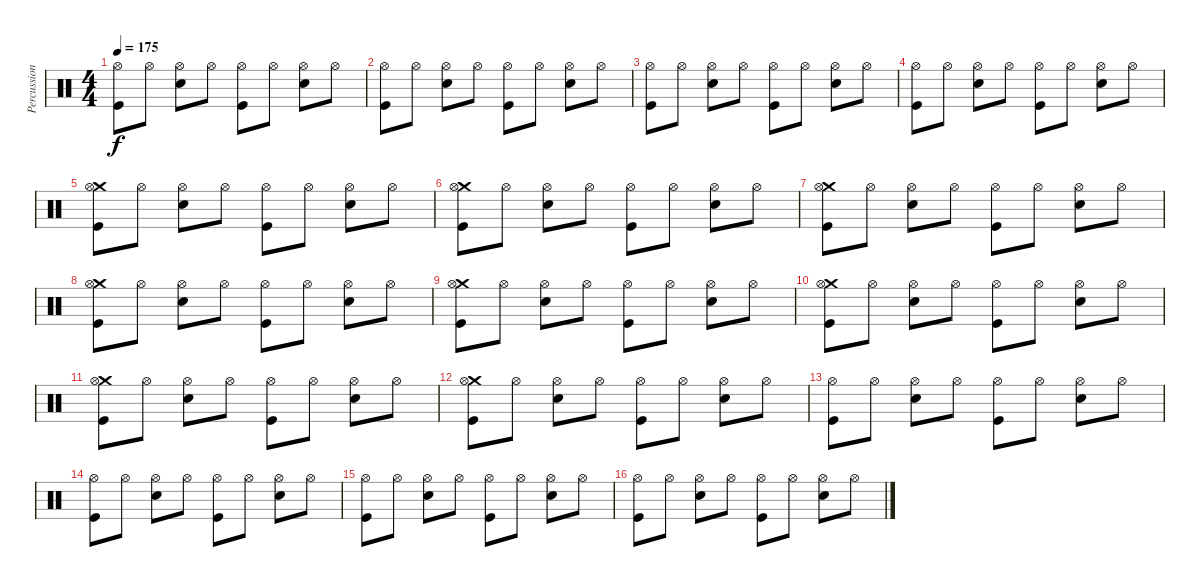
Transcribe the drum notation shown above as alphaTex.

\track ("Percussion" "Percussion") {instrument percussion}
\staff {score}
\articulation defaults
\ts (4 4)
\tempo 175
\clef neutral
\ks c
("Hi-Hat (open)" "Kick (hit)").8{dy f} "Hi-Hat (open)".8 ("Hi-Hat (open)" "Snare (hit) 2").8 "Hi-Hat (open)".8 ("Hi-Hat (open)" "Kick (hit)").8 "Hi-Hat (open)".8 ("Hi-Hat (open)" "Snare (hit) 2").8 "Hi-Hat (open)".8 |
("Hi-Hat (open)" "Kick (hit)").8 "Hi-Hat (open)".8 ("Hi-Hat (open)" "Snare (hit) 2").8 "Hi-Hat (open)".8 ("Hi-Hat (open)" "Kick (hit)").8 "Hi-Hat (open)".8 ("Hi-Hat (open)" "Snare (hit) 2").8 "Hi-Hat (open)".8 |
("Hi-Hat (open)" "Kick (hit)").8 "Hi-Hat (open)".8 ("Hi-Hat (open)" "Snare (hit) 2").8 "Hi-Hat (open)".8 ("Hi-Hat (open)" "Kick (hit)").8 "Hi-Hat (open)".8 ("Hi-Hat (open)" "Snare (hit) 2").8 "Hi-Hat (open)".8 |
("Hi-Hat (open)" "Kick (hit)").8 "Hi-Hat (open)".8 ("Hi-Hat (open)" "Snare (hit) 2").8 "Hi-Hat (open)".8 ("Hi-Hat (open)" "Kick (hit)").8 "Hi-Hat (open)".8 ("Hi-Hat (open)" "Snare (hit) 2").8 "Hi-Hat (open)".8 |
("Crash medium (hit)" "Hi-Hat (open)" "Kick (hit)").8 "Hi-Hat (open)".8 ("Hi-Hat (open)" "Snare (hit) 2").8 "Hi-Hat (open)".8 ("Hi-Hat (open)" "Kick (hit)").8 "Hi-Hat (open)".8 ("Hi-Hat (open)" "Snare (hit) 2").8 "Hi-Hat (open)".8 |
("Crash medium (hit)" "Hi-Hat (open)" "Kick (hit)").8 "Hi-Hat (open)".8 ("Hi-Hat (open)" "Snare (hit) 2").8 "Hi-Hat (open)".8 ("Hi-Hat (open)" "Kick (hit)").8 "Hi-Hat (open)".8 ("Hi-Hat (open)" "Snare (hit) 2").8 "Hi-Hat (open)".8 |
("Crash medium (hit)" "Hi-Hat (open)" "Kick (hit)").8 "Hi-Hat (open)".8 ("Hi-Hat (open)" "Snare (hit) 2").8 "Hi-Hat (open)".8 ("Hi-Hat (open)" "Kick (hit)").8 "Hi-Hat (open)".8 ("Hi-Hat (open)" "Snare (hit) 2").8 "Hi-Hat (open)".8 |
("Crash medium (hit)" "Hi-Hat (open)" "Kick (hit)").8 "Hi-Hat (open)".8 ("Hi-Hat (open)" "Snare (hit) 2").8 "Hi-Hat (open)".8 ("Hi-Hat (open)" "Kick (hit)").8 "Hi-Hat (open)".8 ("Hi-Hat (open)" "Snare (hit) 2").8 "Hi-Hat (open)".8 |
("Crash medium (hit)" "Hi-Hat (open)" "Kick (hit)").8 "Hi-Hat (open)".8 ("Hi-Hat (open)" "Snare (hit) 2").8 "Hi-Hat (open)".8 ("Hi-Hat (open)" "Kick (hit)").8 "Hi-Hat (open)".8 ("Hi-Hat (open)" "Snare (hit) 2").8 "Hi-Hat (open)".8 |
("Crash medium (hit)" "Hi-Hat (open)" "Kick (hit)").8 "Hi-Hat (open)".8 ("Hi-Hat (open)" "Snare (hit) 2").8 "Hi-Hat (open)".8 ("Hi-Hat (open)" "Kick (hit)").8 "Hi-Hat (open)".8 ("Hi-Hat (open)" "Snare (hit) 2").8 "Hi-Hat (open)".8 |
("Crash medium (hit)" "Hi-Hat (open)" "Kick (hit)").8 "Hi-Hat (open)".8 ("Hi-Hat (open)" "Snare (hit) 2").8 "Hi-Hat (open)".8 ("Hi-Hat (open)" "Kick (hit)").8 "Hi-Hat (open)".8 ("Hi-Hat (open)" "Snare (hit) 2").8 "Hi-Hat (open)".8 |
("Crash medium (hit)" "Hi-Hat (open)" "Kick (hit)").8 "Hi-Hat (open)".8 ("Hi-Hat (open)" "Snare (hit) 2").8 "Hi-Hat (open)".8 ("Hi-Hat (open)" "Kick (hit)").8 "Hi-Hat (open)".8 ("Hi-Hat (open)" "Snare (hit) 2").8 "Hi-Hat (open)".8 |
("Hi-Hat (open)" "Kick (hit)").8 "Hi-Hat (open)".8 ("Hi-Hat (open)" "Snare (hit) 2").8 "Hi-Hat (open)".8 ("Hi-Hat (open)" "Kick (hit)").8 "Hi-Hat (open)".8 ("Hi-Hat (open)" "Snare (hit) 2").8 "Hi-Hat (open)".8 |
("Hi-Hat (open)" "Kick (hit)").8 "Hi-Hat (open)".8 ("Hi-Hat (open)" "Snare (hit) 2").8 "Hi-Hat (open)".8 ("Hi-Hat (open)" "Kick (hit)").8 "Hi-Hat (open)".8 ("Hi-Hat (open)" "Snare (hit) 2").8 "Hi-Hat (open)".8 |
("Hi-Hat (open)" "Kick (hit)").8 "Hi-Hat (open)".8 ("Hi-Hat (open)" "Snare (hit) 2").8 "Hi-Hat (open)".8 ("Hi-Hat (open)" "Kick (hit)").8 "Hi-Hat (open)".8 ("Hi-Hat (open)" "Snare (hit) 2").8 "Hi-Hat (open)".8 |
("Hi-Hat (open)" "Kick (hit)").8 "Hi-Hat (open)".8 ("Hi-Hat (open)" "Snare (hit) 2").8 "Hi-Hat (open)".8 ("Hi-Hat (open)" "Kick (hit)").8 "Hi-Hat (open)".8 ("Hi-Hat (open)" "Snare (hit) 2").8 "Hi-Hat (open)".8
